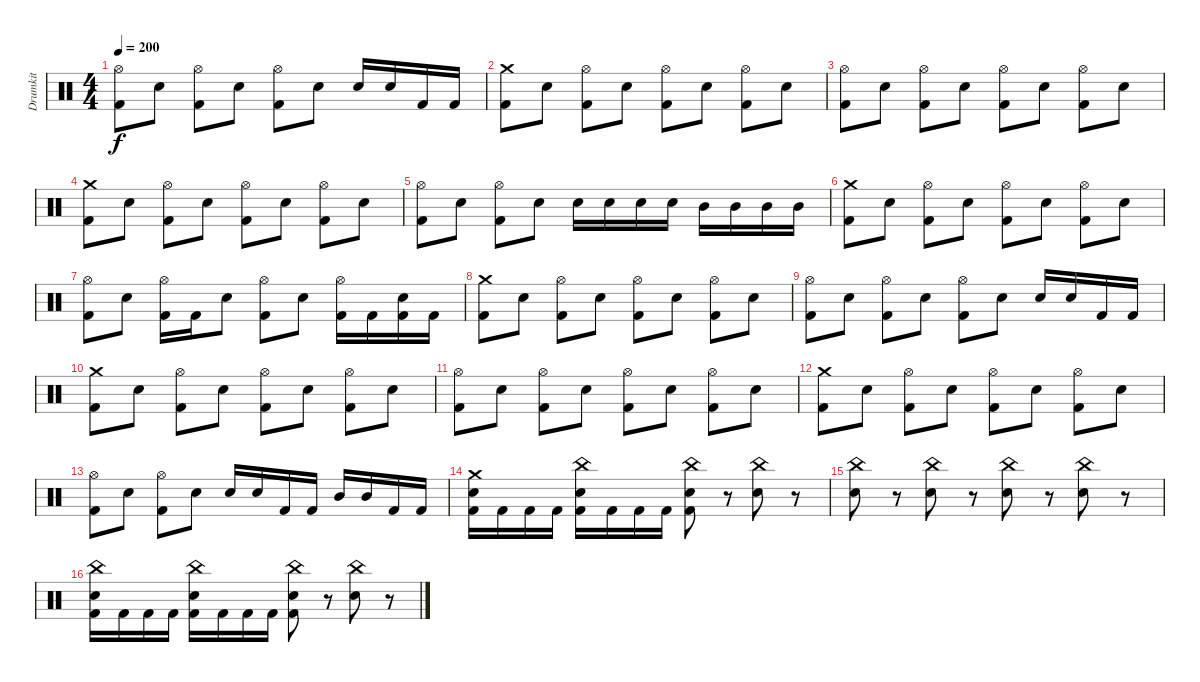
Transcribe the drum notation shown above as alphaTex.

\track ("Drumkit" "Drumkit") {instrument percussion}
\staff {score}
\articulation defaults
\ts (4 4)
\tempo 200
\clef neutral
\ks c
("Hi-Hat (open)" "Kick (hit) 2").8{dy f} "Electric Snare (hit)".8 ("Hi-Hat (open)" "Kick (hit) 2").8 "Electric Snare (hit)".8 ("Hi-Hat (open)" "Kick (hit) 2").8 "Electric Snare (hit)".8 "Electric Snare (hit)".16 "Electric Snare (hit)".16 "Kick (hit) 2".16 "Kick (hit) 2".16 |
("Crash medium (hit)" "Kick (hit) 2").8 "Electric Snare (hit)".8 ("Hi-Hat (open)" "Kick (hit) 2").8 "Electric Snare (hit)".8 ("Hi-Hat (open)" "Kick (hit) 2").8 "Electric Snare (hit)".8 ("Hi-Hat (open)" "Kick (hit) 2").8 "Electric Snare (hit)".8 |
("Hi-Hat (open)" "Kick (hit) 2").8 "Electric Snare (hit)".8 ("Hi-Hat (open)" "Kick (hit) 2").8 "Electric Snare (hit)".8 ("Hi-Hat (open)" "Kick (hit) 2").8 "Electric Snare (hit)".8 ("Hi-Hat (open)" "Kick (hit) 2").8 "Electric Snare (hit)".8 |
("Crash medium (hit)" "Kick (hit) 2").8 "Electric Snare (hit)".8 ("Hi-Hat (open)" "Kick (hit) 2").8 "Electric Snare (hit)".8 ("Hi-Hat (open)" "Kick (hit) 2").8 "Electric Snare (hit)".8 ("Hi-Hat (open)" "Kick (hit) 2").8 "Electric Snare (hit)".8 |
("Hi-Hat (open)" "Kick (hit) 2").8 "Electric Snare (hit)".8 ("Hi-Hat (open)" "Kick (hit) 2").8 "Electric Snare (hit)".8 "Electric Snare (hit)".16 "Electric Snare (hit)".16 "Electric Snare (hit)".16 "Electric Snare (hit)".16 "Mid Tom (hit)".16 "Mid Tom (hit)".16 "Mid Tom (hit)".16 "Mid Tom (hit)".16 |
("Crash medium (hit)" "Kick (hit) 2").8 "Electric Snare (hit)".8 ("Hi-Hat (open)" "Kick (hit) 2").8 "Electric Snare (hit)".8 ("Hi-Hat (open)" "Kick (hit) 2").8 "Electric Snare (hit)".8 ("Hi-Hat (open)" "Kick (hit) 2").8 "Electric Snare (hit)".8 |
("Hi-Hat (open)" "Kick (hit) 2").8 "Electric Snare (hit)".8 ("Hi-Hat (open)" "Kick (hit) 2").16 "Kick (hit) 2".16 "Electric Snare (hit)".8 ("Hi-Hat (open)" "Kick (hit) 2").8 "Electric Snare (hit)".8 ("Hi-Hat (open)" "Kick (hit) 2").16 "Kick (hit) 2".16 ("Electric Snare (hit)" "Kick (hit) 2").16 "Kick (hit) 2".16 |
("Crash medium (hit)" "Kick (hit) 2").8 "Electric Snare (hit)".8 ("Hi-Hat (open)" "Kick (hit) 2").8 "Electric Snare (hit)".8 ("Hi-Hat (open)" "Kick (hit) 2").8 "Electric Snare (hit)".8 ("Hi-Hat (open)" "Kick (hit) 2").8 "Electric Snare (hit)".8 |
("Hi-Hat (open)" "Kick (hit) 2").8 "Electric Snare (hit)".8 ("Hi-Hat (open)" "Kick (hit) 2").8 "Electric Snare (hit)".8 ("Hi-Hat (open)" "Kick (hit) 2").8 "Electric Snare (hit)".8 "Electric Snare (hit)".16 "Electric Snare (hit)".16 "Kick (hit) 2".16 "Kick (hit) 2".16 |
("Crash medium (hit)" "Kick (hit) 2").8 "Electric Snare (hit)".8 ("Hi-Hat (open)" "Kick (hit) 2").8 "Electric Snare (hit)".8 ("Hi-Hat (open)" "Kick (hit) 2").8 "Electric Snare (hit)".8 ("Hi-Hat (open)" "Kick (hit) 2").8 "Electric Snare (hit)".8 |
("Hi-Hat (open)" "Kick (hit) 2").8 "Electric Snare (hit)".8 ("Hi-Hat (open)" "Kick (hit) 2").8 "Electric Snare (hit)".8 ("Hi-Hat (open)" "Kick (hit) 2").8 "Electric Snare (hit)".8 ("Hi-Hat (open)" "Kick (hit) 2").8 "Electric Snare (hit)".8 |
("Crash medium (hit)" "Kick (hit) 2").8 "Electric Snare (hit)".8 ("Hi-Hat (open)" "Kick (hit) 2").8 "Electric Snare (hit)".8 ("Hi-Hat (open)" "Kick (hit) 2").8 "Electric Snare (hit)".8 ("Hi-Hat (open)" "Kick (hit) 2").8 "Electric Snare (hit)".8 |
("Hi-Hat (open)" "Kick (hit) 2").8 "Electric Snare (hit)".8 ("Hi-Hat (open)" "Kick (hit) 2").8 "Electric Snare (hit)".8 "Electric Snare (hit)".16 "Electric Snare (hit)".16 "Kick (hit) 2".16 "Kick (hit) 2".16 "Mid Tom (hit)".16 "Mid Tom (hit)".16 "Kick (hit) 2".16 "Kick (hit) 2".16 |
("Crash medium (hit)" "Electric Snare (hit)" "Kick (hit) 2").16 "Kick (hit) 2".16 "Kick (hit) 2".16 "Kick (hit) 2".16 ("China (hit)" "Electric Snare (hit)" "Kick (hit) 2").16 "Kick (hit) 2".16 "Kick (hit) 2".16 "Kick (hit) 2".16 ("China (hit)" "Electric Snare (hit)" "Kick (hit) 2").8 r.8 ("China (hit)" "Electric Snare (hit)").8 r.8 |
("China (hit)" "Electric Snare (hit)").8 r.8 ("China (hit)" "Electric Snare (hit)").8 r.8 ("China (hit)" "Electric Snare (hit)").8 r.8 ("China (hit)" "Electric Snare (hit)").8 r.8 |
("China (hit)" "Electric Snare (hit)" "Kick (hit) 2").16 "Kick (hit) 2".16 "Kick (hit) 2".16 "Kick (hit) 2".16 ("China (hit)" "Electric Snare (hit)" "Kick (hit) 2").16 "Kick (hit) 2".16 "Kick (hit) 2".16 "Kick (hit) 2".16 ("China (hit)" "Electric Snare (hit)" "Kick (hit) 2").8 r.8 ("China (hit)" "Electric Snare (hit)").8 r.8
